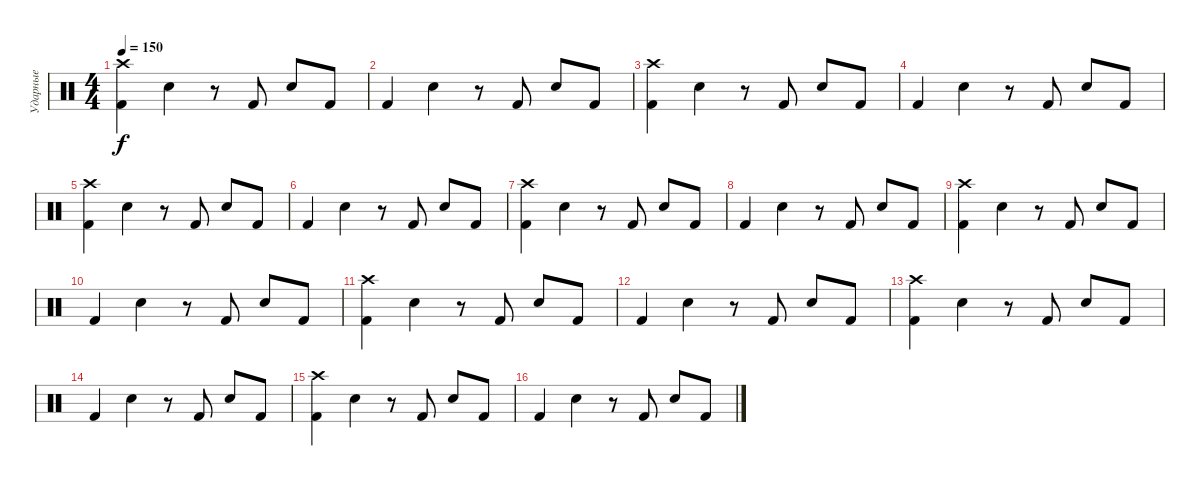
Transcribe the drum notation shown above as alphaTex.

\track ("Ударные" "Ударные") {instrument percussion}
\staff {score}
\articulation defaults
\ts (4 4)
\tempo 150
\clef neutral
\ks c
("Kick (hit) 2" "Crash high (hit)").4{dy f} "Electric Snare (hit)".4 r.8 "Kick (hit) 2".8 "Electric Snare (hit)".8 "Kick (hit) 2".8 |
"Kick (hit) 2".4 "Electric Snare (hit)".4 r.8 "Kick (hit) 2".8 "Electric Snare (hit)".8 "Kick (hit) 2".8 |
("Kick (hit) 2" "Crash high (hit)").4 "Electric Snare (hit)".4 r.8 "Kick (hit) 2".8 "Electric Snare (hit)".8 "Kick (hit) 2".8 |
"Kick (hit) 2".4 "Electric Snare (hit)".4 r.8 "Kick (hit) 2".8 "Electric Snare (hit)".8 "Kick (hit) 2".8 |
("Kick (hit) 2" "Crash high (hit)").4 "Electric Snare (hit)".4 r.8 "Kick (hit) 2".8 "Electric Snare (hit)".8 "Kick (hit) 2".8 |
"Kick (hit) 2".4 "Electric Snare (hit)".4 r.8 "Kick (hit) 2".8 "Electric Snare (hit)".8 "Kick (hit) 2".8 |
("Kick (hit) 2" "Crash high (hit)").4 "Electric Snare (hit)".4 r.8 "Kick (hit) 2".8 "Electric Snare (hit)".8 "Kick (hit) 2".8 |
"Kick (hit) 2".4 "Electric Snare (hit)".4 r.8 "Kick (hit) 2".8 "Electric Snare (hit)".8 "Kick (hit) 2".8 |
("Kick (hit) 2" "Crash high (hit)").4 "Electric Snare (hit)".4 r.8 "Kick (hit) 2".8 "Electric Snare (hit)".8 "Kick (hit) 2".8 |
"Kick (hit) 2".4 "Electric Snare (hit)".4 r.8 "Kick (hit) 2".8 "Electric Snare (hit)".8 "Kick (hit) 2".8 |
("Kick (hit) 2" "Crash high (hit)").4 "Electric Snare (hit)".4 r.8 "Kick (hit) 2".8 "Electric Snare (hit)".8 "Kick (hit) 2".8 |
"Kick (hit) 2".4 "Electric Snare (hit)".4 r.8 "Kick (hit) 2".8 "Electric Snare (hit)".8 "Kick (hit) 2".8 |
("Kick (hit) 2" "Crash high (hit)").4 "Electric Snare (hit)".4 r.8 "Kick (hit) 2".8 "Electric Snare (hit)".8 "Kick (hit) 2".8 |
"Kick (hit) 2".4 "Electric Snare (hit)".4 r.8 "Kick (hit) 2".8 "Electric Snare (hit)".8 "Kick (hit) 2".8 |
("Kick (hit) 2" "Crash high (hit)").4 "Electric Snare (hit)".4 r.8 "Kick (hit) 2".8 "Electric Snare (hit)".8 "Kick (hit) 2".8 |
"Kick (hit) 2".4 "Electric Snare (hit)".4 r.8 "Kick (hit) 2".8 "Electric Snare (hit)".8 "Kick (hit) 2".8
